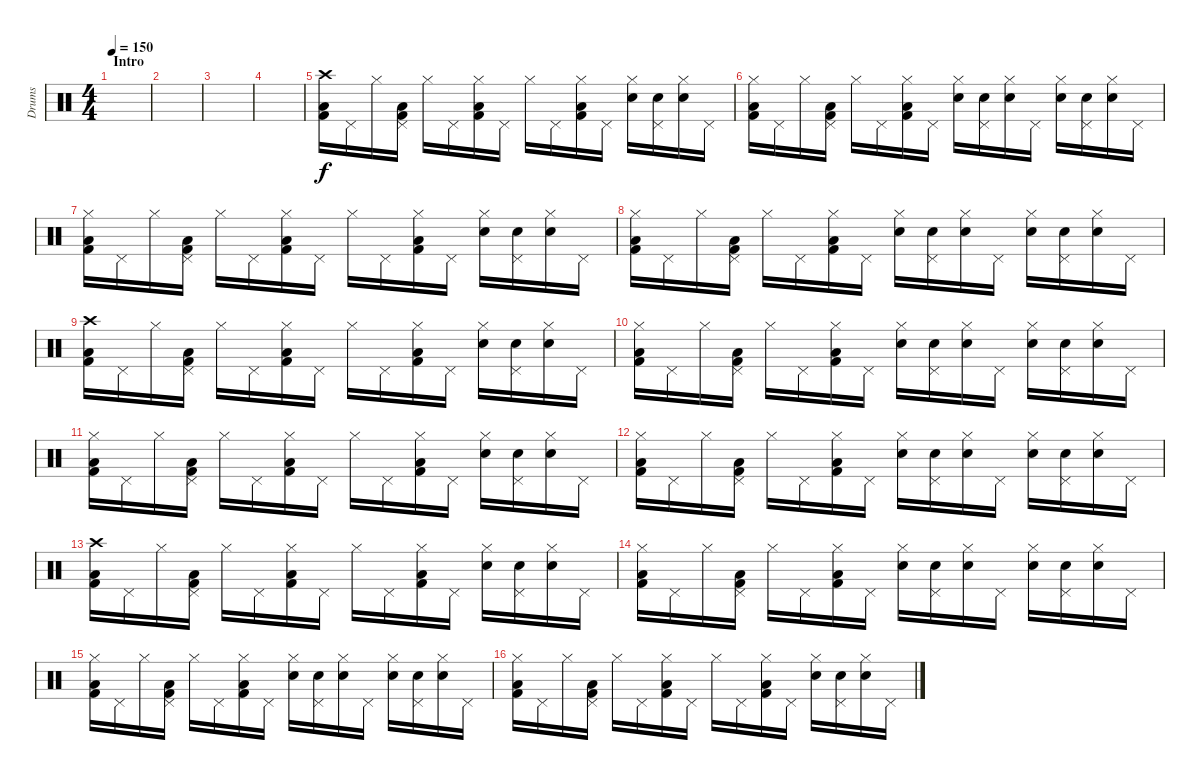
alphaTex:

\track ("Drums" "Drums") {instrument percussion}
\staff {score}
\articulation defaults
\ts (4 4)
\section ("" "Intro")
\tempo 150
\clef neutral
\ks c
|
|
|
|
("Crash high (hit)" "Low Floor Tom (hit)" "Kick (hit) 2").16 "Pedal Hi-Hat (hit)".16 "Hi-Hat (closed)".16 ("Pedal Hi-Hat (hit)" "Low Floor Tom (hit)" "Kick (hit) 2").16 "Hi-Hat (closed)".16 "Pedal Hi-Hat (hit)".16 ("Hi-Hat (closed)" "Low Floor Tom (hit)" "Kick (hit) 2").16 "Pedal Hi-Hat (hit)".16 "Hi-Hat (closed)".16 "Pedal Hi-Hat (hit)".16 ("Hi-Hat (closed)" "Low Floor Tom (hit)" "Kick (hit) 2").16 "Pedal Hi-Hat (hit)".16 ("Hi-Hat (closed)" "Electric Snare (hit)").16 ("Pedal Hi-Hat (hit)" "Electric Snare (hit)").16 ("Hi-Hat (closed)" "Electric Snare (hit)").16 "Pedal Hi-Hat (hit)".16 |
("Hi-Hat (closed)" "Low Floor Tom (hit)" "Kick (hit) 2").16 "Pedal Hi-Hat (hit)".16 "Hi-Hat (closed)".16 ("Pedal Hi-Hat (hit)" "Low Floor Tom (hit)" "Kick (hit) 2").16 "Hi-Hat (closed)".16 "Pedal Hi-Hat (hit)".16 ("Hi-Hat (closed)" "Low Floor Tom (hit)" "Kick (hit) 2").16 "Pedal Hi-Hat (hit)".16 ("Hi-Hat (closed)" "Electric Snare (hit)").16 ("Pedal Hi-Hat (hit)" "Electric Snare (hit)").16 ("Hi-Hat (closed)" "Electric Snare (hit)").16 "Pedal Hi-Hat (hit)".16 ("Hi-Hat (closed)" "Electric Snare (hit)").16 ("Pedal Hi-Hat (hit)" "Electric Snare (hit)").16 ("Hi-Hat (closed)" "Electric Snare (hit)").16 "Pedal Hi-Hat (hit)".16 |
("Hi-Hat (closed)" "Low Floor Tom (hit)" "Kick (hit) 2").16 "Pedal Hi-Hat (hit)".16 "Hi-Hat (closed)".16 ("Pedal Hi-Hat (hit)" "Low Floor Tom (hit)" "Kick (hit) 2").16 "Hi-Hat (closed)".16 "Pedal Hi-Hat (hit)".16 ("Hi-Hat (closed)" "Low Floor Tom (hit)" "Kick (hit) 2").16 "Pedal Hi-Hat (hit)".16 "Hi-Hat (closed)".16 "Pedal Hi-Hat (hit)".16 ("Hi-Hat (closed)" "Low Floor Tom (hit)" "Kick (hit) 2").16 "Pedal Hi-Hat (hit)".16 ("Hi-Hat (closed)" "Electric Snare (hit)").16 ("Pedal Hi-Hat (hit)" "Electric Snare (hit)").16 ("Hi-Hat (closed)" "Electric Snare (hit)").16 "Pedal Hi-Hat (hit)".16 |
("Hi-Hat (closed)" "Low Floor Tom (hit)" "Kick (hit) 2").16 "Pedal Hi-Hat (hit)".16 "Hi-Hat (closed)".16 ("Pedal Hi-Hat (hit)" "Low Floor Tom (hit)" "Kick (hit) 2").16 "Hi-Hat (closed)".16 "Pedal Hi-Hat (hit)".16 ("Hi-Hat (closed)" "Low Floor Tom (hit)" "Kick (hit) 2").16 "Pedal Hi-Hat (hit)".16 ("Hi-Hat (closed)" "Electric Snare (hit)").16 ("Pedal Hi-Hat (hit)" "Electric Snare (hit)").16 ("Hi-Hat (closed)" "Electric Snare (hit)").16 "Pedal Hi-Hat (hit)".16 ("Hi-Hat (closed)" "Electric Snare (hit)").16 ("Pedal Hi-Hat (hit)" "Electric Snare (hit)").16 ("Hi-Hat (closed)" "Electric Snare (hit)").16 "Pedal Hi-Hat (hit)".16 |
("Crash high (hit)" "Low Floor Tom (hit)" "Kick (hit) 2").16 "Pedal Hi-Hat (hit)".16 "Hi-Hat (closed)".16 ("Pedal Hi-Hat (hit)" "Low Floor Tom (hit)" "Kick (hit) 2").16 "Hi-Hat (closed)".16 "Pedal Hi-Hat (hit)".16 ("Hi-Hat (closed)" "Low Floor Tom (hit)" "Kick (hit) 2").16 "Pedal Hi-Hat (hit)".16 "Hi-Hat (closed)".16 "Pedal Hi-Hat (hit)".16 ("Hi-Hat (closed)" "Low Floor Tom (hit)" "Kick (hit) 2").16 "Pedal Hi-Hat (hit)".16 ("Hi-Hat (closed)" "Electric Snare (hit)").16 ("Pedal Hi-Hat (hit)" "Electric Snare (hit)").16 ("Hi-Hat (closed)" "Electric Snare (hit)").16 "Pedal Hi-Hat (hit)".16 |
("Hi-Hat (closed)" "Low Floor Tom (hit)" "Kick (hit) 2").16 "Pedal Hi-Hat (hit)".16 "Hi-Hat (closed)".16 ("Pedal Hi-Hat (hit)" "Low Floor Tom (hit)" "Kick (hit) 2").16 "Hi-Hat (closed)".16 "Pedal Hi-Hat (hit)".16 ("Hi-Hat (closed)" "Low Floor Tom (hit)" "Kick (hit) 2").16 "Pedal Hi-Hat (hit)".16 ("Hi-Hat (closed)" "Electric Snare (hit)").16 ("Pedal Hi-Hat (hit)" "Electric Snare (hit)").16 ("Hi-Hat (closed)" "Electric Snare (hit)").16 "Pedal Hi-Hat (hit)".16 ("Hi-Hat (closed)" "Electric Snare (hit)").16 ("Pedal Hi-Hat (hit)" "Electric Snare (hit)").16 ("Hi-Hat (closed)" "Electric Snare (hit)").16 "Pedal Hi-Hat (hit)".16 |
("Hi-Hat (closed)" "Low Floor Tom (hit)" "Kick (hit) 2").16 "Pedal Hi-Hat (hit)".16 "Hi-Hat (closed)".16 ("Pedal Hi-Hat (hit)" "Low Floor Tom (hit)" "Kick (hit) 2").16 "Hi-Hat (closed)".16 "Pedal Hi-Hat (hit)".16 ("Hi-Hat (closed)" "Low Floor Tom (hit)" "Kick (hit) 2").16 "Pedal Hi-Hat (hit)".16 "Hi-Hat (closed)".16 "Pedal Hi-Hat (hit)".16 ("Hi-Hat (closed)" "Low Floor Tom (hit)" "Kick (hit) 2").16 "Pedal Hi-Hat (hit)".16 ("Hi-Hat (closed)" "Electric Snare (hit)").16 ("Pedal Hi-Hat (hit)" "Electric Snare (hit)").16 ("Hi-Hat (closed)" "Electric Snare (hit)").16 "Pedal Hi-Hat (hit)".16 |
("Hi-Hat (closed)" "Low Floor Tom (hit)" "Kick (hit) 2").16 "Pedal Hi-Hat (hit)".16 "Hi-Hat (closed)".16 ("Pedal Hi-Hat (hit)" "Low Floor Tom (hit)" "Kick (hit) 2").16 "Hi-Hat (closed)".16 "Pedal Hi-Hat (hit)".16 ("Hi-Hat (closed)" "Low Floor Tom (hit)" "Kick (hit) 2").16 "Pedal Hi-Hat (hit)".16 ("Hi-Hat (closed)" "Electric Snare (hit)").16 ("Pedal Hi-Hat (hit)" "Electric Snare (hit)").16 ("Hi-Hat (closed)" "Electric Snare (hit)").16 "Pedal Hi-Hat (hit)".16 ("Hi-Hat (closed)" "Electric Snare (hit)").16 ("Pedal Hi-Hat (hit)" "Electric Snare (hit)").16 ("Hi-Hat (closed)" "Electric Snare (hit)").16 "Pedal Hi-Hat (hit)".16 |
("Crash high (hit)" "Low Floor Tom (hit)" "Kick (hit) 2").16 "Pedal Hi-Hat (hit)".16 "Hi-Hat (closed)".16 ("Pedal Hi-Hat (hit)" "Low Floor Tom (hit)" "Kick (hit) 2").16 "Hi-Hat (closed)".16 "Pedal Hi-Hat (hit)".16 ("Hi-Hat (closed)" "Low Floor Tom (hit)" "Kick (hit) 2").16 "Pedal Hi-Hat (hit)".16 "Hi-Hat (closed)".16 "Pedal Hi-Hat (hit)".16 ("Hi-Hat (closed)" "Low Floor Tom (hit)" "Kick (hit) 2").16 "Pedal Hi-Hat (hit)".16 ("Hi-Hat (closed)" "Electric Snare (hit)").16 ("Pedal Hi-Hat (hit)" "Electric Snare (hit)").16 ("Hi-Hat (closed)" "Electric Snare (hit)").16 "Pedal Hi-Hat (hit)".16 |
("Hi-Hat (closed)" "Low Floor Tom (hit)" "Kick (hit) 2").16 "Pedal Hi-Hat (hit)".16 "Hi-Hat (closed)".16 ("Pedal Hi-Hat (hit)" "Low Floor Tom (hit)" "Kick (hit) 2").16 "Hi-Hat (closed)".16 "Pedal Hi-Hat (hit)".16 ("Hi-Hat (closed)" "Low Floor Tom (hit)" "Kick (hit) 2").16 "Pedal Hi-Hat (hit)".16 ("Hi-Hat (closed)" "Electric Snare (hit)").16 ("Pedal Hi-Hat (hit)" "Electric Snare (hit)").16 ("Hi-Hat (closed)" "Electric Snare (hit)").16 "Pedal Hi-Hat (hit)".16 ("Hi-Hat (closed)" "Electric Snare (hit)").16 ("Pedal Hi-Hat (hit)" "Electric Snare (hit)").16 ("Hi-Hat (closed)" "Electric Snare (hit)").16 "Pedal Hi-Hat (hit)".16 |
("Hi-Hat (closed)" "Low Floor Tom (hit)" "Kick (hit) 2").16 "Pedal Hi-Hat (hit)".16 "Hi-Hat (closed)".16 ("Pedal Hi-Hat (hit)" "Low Floor Tom (hit)" "Kick (hit) 2").16 "Hi-Hat (closed)".16 "Pedal Hi-Hat (hit)".16 ("Hi-Hat (closed)" "Low Floor Tom (hit)" "Kick (hit) 2").16 "Pedal Hi-Hat (hit)".16 ("Hi-Hat (closed)" "Electric Snare (hit)").16 ("Pedal Hi-Hat (hit)" "Electric Snare (hit)").16 ("Hi-Hat (closed)" "Electric Snare (hit)").16 "Pedal Hi-Hat (hit)".16 ("Hi-Hat (closed)" "Electric Snare (hit)").16 ("Pedal Hi-Hat (hit)" "Electric Snare (hit)").16 ("Hi-Hat (closed)" "Electric Snare (hit)").16 "Pedal Hi-Hat (hit)".16 |
("Hi-Hat (closed)" "Low Floor Tom (hit)" "Kick (hit) 2").16 "Pedal Hi-Hat (hit)".16 "Hi-Hat (closed)".16 ("Pedal Hi-Hat (hit)" "Low Floor Tom (hit)" "Kick (hit) 2").16 "Hi-Hat (closed)".16 "Pedal Hi-Hat (hit)".16 ("Hi-Hat (closed)" "Low Floor Tom (hit)" "Kick (hit) 2").16 "Pedal Hi-Hat (hit)".16 "Hi-Hat (closed)".16 "Pedal Hi-Hat (hit)".16 ("Hi-Hat (closed)" "Low Floor Tom (hit)" "Kick (hit) 2").16 "Pedal Hi-Hat (hit)".16 ("Hi-Hat (closed)" "Electric Snare (hit)").16 ("Pedal Hi-Hat (hit)" "Electric Snare (hit)").16 ("Hi-Hat (closed)" "Electric Snare (hit)").16 "Pedal Hi-Hat (hit)".16
